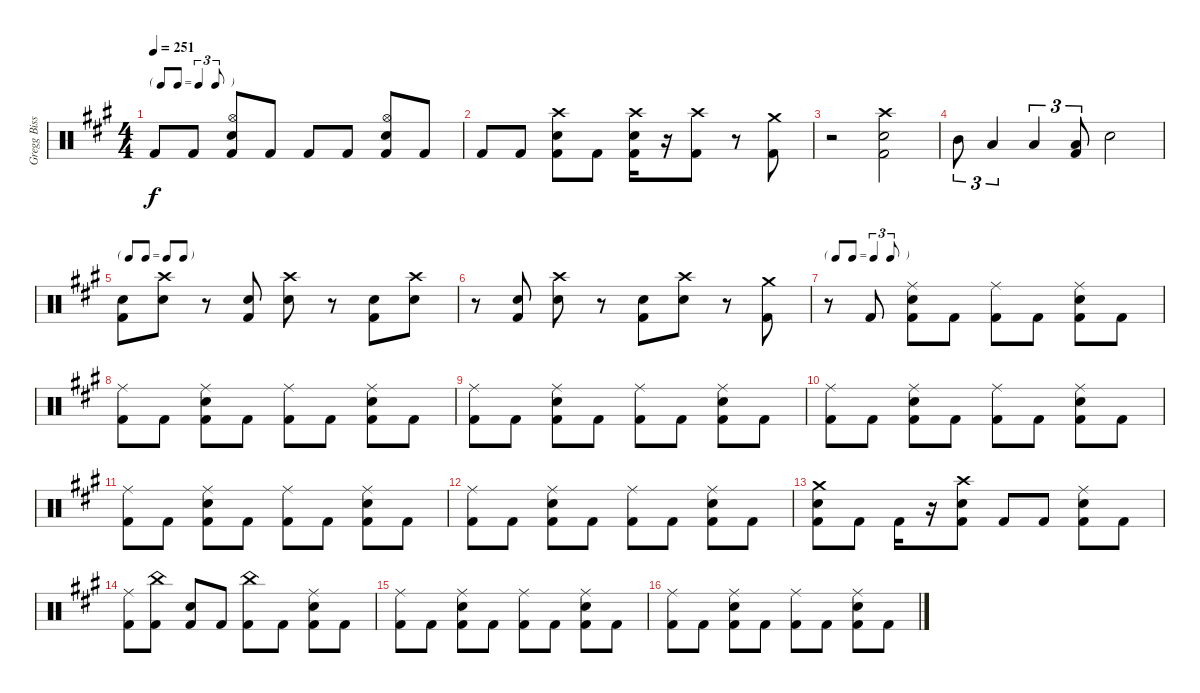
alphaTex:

\track ("Gregg Bissonette" "Gregg Biss") {instrument percussion}
\staff {score}
\articulation defaults
\ts (4 4)
\tf triplet8th
\tempo 251
\clef neutral
\ks f#minor "Kick (hit) 2".8{dy f} "Kick (hit) 2".8
("Hi-Hat (open)" "Electric Snare (hit)" "Kick (hit) 2").8 "Kick (hit) 2".8 "Kick (hit) 2".8 "Kick (hit) 2".8 ("Hi-Hat (open)" "Electric Snare (hit)" "Kick (hit) 2").8 "Kick (hit) 2".8 |
"Kick (hit) 2".8 "Kick (hit) 2".8 ("Crash high (hit)" "Electric Snare (hit)" "Kick (hit) 2").8 "Kick (hit) 2".8 ("Crash high (hit)" "Electric Snare (hit)" "Kick (hit) 2").16 r.16 ("Crash high (hit)" "Kick (hit) 2").8 r.8 ("Crash medium (hit)" "Kick (hit) 2").8 |
r.2 ("Crash high (hit)" "Electric Snare (hit)" "Kick (hit) 2").2 |
"Mid Tom (hit)".8{tu (3 2)} "Low Tom (hit)".4{tu (3 2)} "Low Tom (hit)".4{tu (3 2)} ("Low Tom (hit)" "Kick (hit) 2").8{tu (3 2)} "Electric Snare (hit)".2 |
\tf none
("Electric Snare (hit)" "Kick (hit) 2").8 ("Crash high (hit)" "Electric Snare (hit)").8 r.8 ("Electric Snare (hit)" "Kick (hit) 2").8 ("Crash high (hit)" "Electric Snare (hit)").8 r.8 ("Electric Snare (hit)" "Kick (hit) 2").8 ("Crash high (hit)" "Electric Snare (hit)").8 |
r.8 ("Electric Snare (hit)" "Kick (hit) 2").8 ("Crash high (hit)" "Electric Snare (hit)").8 r.8 ("Electric Snare (hit)" "Kick (hit) 2").8 ("Crash high (hit)" "Electric Snare (hit)").8 r.8 ("Crash medium (hit)" "Kick (hit) 2").8 |
\tf triplet8th
r.8 "Kick (hit) 2".8 ("Ride (middle)" "Electric Snare (hit)" "Kick (hit) 2").8 "Kick (hit) 2".8 ("Ride (middle)" "Kick (hit) 2").8 "Kick (hit) 2".8 ("Ride (middle)" "Electric Snare (hit)" "Kick (hit) 2").8 "Kick (hit) 2".8 |
("Ride (middle)" "Kick (hit) 2").8 "Kick (hit) 2".8 ("Ride (middle)" "Electric Snare (hit)" "Kick (hit) 2").8 "Kick (hit) 2".8 ("Ride (middle)" "Kick (hit) 2").8 "Kick (hit) 2".8 ("Ride (middle)" "Electric Snare (hit)" "Kick (hit) 2").8 "Kick (hit) 2".8 |
("Ride (middle)" "Kick (hit) 2").8 "Kick (hit) 2".8 ("Ride (middle)" "Electric Snare (hit)" "Kick (hit) 2").8 "Kick (hit) 2".8 ("Ride (middle)" "Kick (hit) 2").8 "Kick (hit) 2".8 ("Ride (middle)" "Electric Snare (hit)" "Kick (hit) 2").8 "Kick (hit) 2".8 |
("Ride (middle)" "Kick (hit) 2").8 "Kick (hit) 2".8 ("Ride (middle)" "Electric Snare (hit)" "Kick (hit) 2").8 "Kick (hit) 2".8 ("Ride (middle)" "Kick (hit) 2").8 "Kick (hit) 2".8 ("Ride (middle)" "Electric Snare (hit)" "Kick (hit) 2").8 "Kick (hit) 2".8 |
("Ride (middle)" "Kick (hit) 2").8 "Kick (hit) 2".8 ("Ride (middle)" "Electric Snare (hit)" "Kick (hit) 2").8 "Kick (hit) 2".8 ("Ride (middle)" "Kick (hit) 2").8 "Kick (hit) 2".8 ("Ride (middle)" "Electric Snare (hit)" "Kick (hit) 2").8 "Kick (hit) 2".8 |
("Ride (middle)" "Kick (hit) 2").8 "Kick (hit) 2".8 ("Ride (middle)" "Electric Snare (hit)" "Kick (hit) 2").8 "Kick (hit) 2".8 ("Ride (middle)" "Kick (hit) 2").8 "Kick (hit) 2".8 ("Ride (middle)" "Electric Snare (hit)" "Kick (hit) 2").8 "Kick (hit) 2".8 |
("Crash medium (hit)" "Electric Snare (hit)" "Kick (hit) 2").8 "Kick (hit) 2".8 "Kick (hit) 2".16 r.16 ("Crash high (hit)" "Electric Snare (hit)" "Kick (hit) 2").8 "Kick (hit) 2".8 "Kick (hit) 2".8 ("Ride (middle)" "Electric Snare (hit)" "Kick (hit) 2").8 "Kick (hit) 2".8 |
("Ride (middle)" "Kick (hit) 2").8 ("China (hit)" "Kick (hit) 2").8 ("Electric Snare (hit)" "Kick (hit) 2").8 "Kick (hit) 2".8 ("China (hit)" "Kick (hit) 2").8 "Kick (hit) 2".8 ("Ride (middle)" "Electric Snare (hit)" "Kick (hit) 2").8 "Kick (hit) 2".8 |
("Ride (middle)" "Kick (hit) 2").8 "Kick (hit) 2".8 ("Ride (middle)" "Electric Snare (hit)" "Kick (hit) 2").8 "Kick (hit) 2".8 ("Ride (middle)" "Kick (hit) 2").8 "Kick (hit) 2".8 ("Ride (middle)" "Electric Snare (hit)" "Kick (hit) 2").8 "Kick (hit) 2".8 |
("Ride (middle)" "Kick (hit) 2").8 "Kick (hit) 2".8 ("Ride (middle)" "Electric Snare (hit)" "Kick (hit) 2").8 "Kick (hit) 2".8 ("Ride (middle)" "Kick (hit) 2").8 "Kick (hit) 2".8 ("Ride (middle)" "Electric Snare (hit)" "Kick (hit) 2").8 "Kick (hit) 2".8
